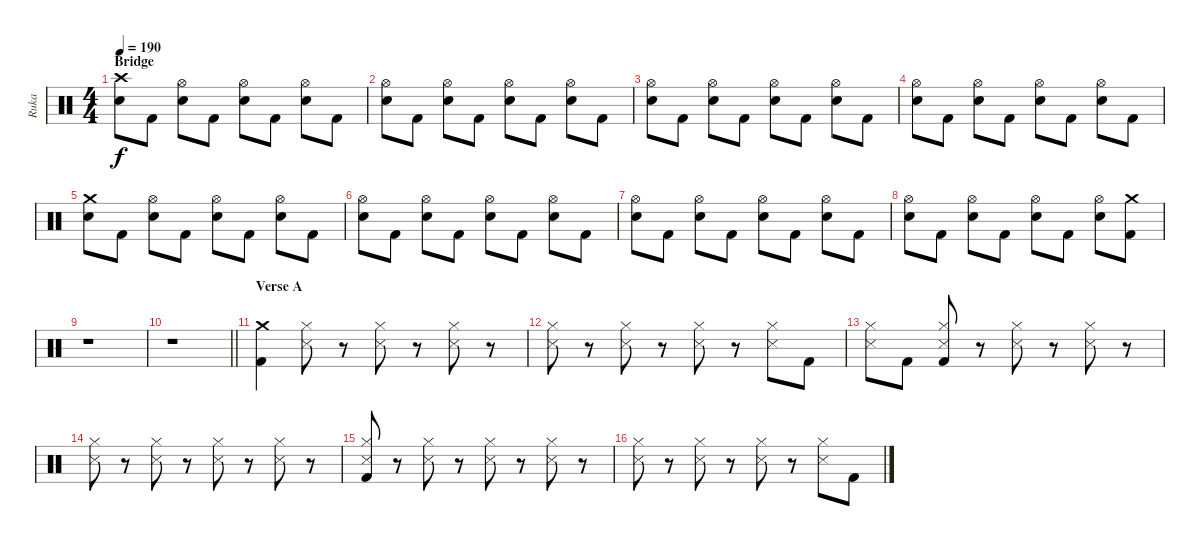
\track ("Ruka " "Ruka ") {instrument percussion}
\staff {score}
\articulation defaults
\ts (4 4)
\section ("" "Bridge")
\tempo 190
\clef neutral
\ks c
("Crash high (hit)" "Electric Snare (hit)").8{dy f} "Kick (hit) 2".8 ("Hi-Hat (open)" "Electric Snare (hit)").8 "Kick (hit) 2".8 ("Hi-Hat (open)" "Electric Snare (hit)").8 "Kick (hit) 2".8 ("Hi-Hat (open)" "Electric Snare (hit)").8 "Kick (hit) 2".8 |
("Hi-Hat (open)" "Electric Snare (hit)").8 "Kick (hit) 2".8 ("Hi-Hat (open)" "Electric Snare (hit)").8 "Kick (hit) 2".8 ("Hi-Hat (open)" "Electric Snare (hit)").8 "Kick (hit) 2".8 ("Hi-Hat (open)" "Electric Snare (hit)").8 "Kick (hit) 2".8 |
("Hi-Hat (open)" "Electric Snare (hit)").8 "Kick (hit) 2".8 ("Hi-Hat (open)" "Electric Snare (hit)").8 "Kick (hit) 2".8 ("Hi-Hat (open)" "Electric Snare (hit)").8 "Kick (hit) 2".8 ("Hi-Hat (open)" "Electric Snare (hit)").8 "Kick (hit) 2".8 |
("Hi-Hat (open)" "Electric Snare (hit)").8 "Kick (hit) 2".8 ("Hi-Hat (open)" "Electric Snare (hit)").8 "Kick (hit) 2".8 ("Hi-Hat (open)" "Electric Snare (hit)").8 "Kick (hit) 2".8 ("Hi-Hat (open)" "Electric Snare (hit)").8 "Kick (hit) 2".8 |
("Crash medium (hit)" "Electric Snare (hit)").8 "Kick (hit) 2".8 ("Hi-Hat (open)" "Electric Snare (hit)").8 "Kick (hit) 2".8 ("Hi-Hat (open)" "Electric Snare (hit)").8 "Kick (hit) 2".8 ("Hi-Hat (open)" "Electric Snare (hit)").8 "Kick (hit) 2".8 |
("Hi-Hat (open)" "Electric Snare (hit)").8 "Kick (hit) 2".8 ("Hi-Hat (open)" "Electric Snare (hit)").8 "Kick (hit) 2".8 ("Hi-Hat (open)" "Electric Snare (hit)").8 "Kick (hit) 2".8 ("Hi-Hat (open)" "Electric Snare (hit)").8 "Kick (hit) 2".8 |
("Hi-Hat (open)" "Electric Snare (hit)").8 "Kick (hit) 2".8 ("Hi-Hat (open)" "Electric Snare (hit)").8 "Kick (hit) 2".8 ("Hi-Hat (open)" "Electric Snare (hit)").8 "Kick (hit) 2".8 ("Hi-Hat (open)" "Electric Snare (hit)").8 "Kick (hit) 2".8 |
("Hi-Hat (open)" "Electric Snare (hit)").8 "Kick (hit) 2".8 ("Hi-Hat (open)" "Electric Snare (hit)").8 "Kick (hit) 2".8 ("Hi-Hat (open)" "Electric Snare (hit)").8 "Kick (hit) 2".8 ("Hi-Hat (open)" "Electric Snare (hit)").8 ("Crash medium (hit)" "Kick (hit) 2").8 |
r.1 |
\barLineRight lightlight
r.1 |
\section ("" "Verse A")
("Crash medium (hit)" "Kick (hit) 2").4 ("Hi-Hat (closed)" "Snare (side stick) 3").8 r.8 ("Hi-Hat (closed)" "Snare (side stick) 3").8 r.8 ("Hi-Hat (closed)" "Snare (side stick) 3").8 r.8 |
("Hi-Hat (closed)" "Snare (side stick) 3").8 r.8 ("Hi-Hat (closed)" "Snare (side stick) 3").8 r.8 ("Hi-Hat (closed)" "Snare (side stick) 3").8 r.8 ("Hi-Hat (closed)" "Snare (side stick) 3").8 "Kick (hit) 2".8 |
("Hi-Hat (closed)" "Snare (side stick) 3").8 "Kick (hit) 2".8 ("Hi-Hat (closed)" "Snare (side stick) 3" "Kick (hit) 2").8 r.8 ("Hi-Hat (closed)" "Snare (side stick) 3").8 r.8 ("Hi-Hat (closed)" "Snare (side stick) 3").8 r.8 |
("Hi-Hat (closed)" "Snare (side stick) 3").8 r.8 ("Hi-Hat (closed)" "Snare (side stick) 3").8 r.8 ("Hi-Hat (closed)" "Snare (side stick) 3").8 r.8 ("Hi-Hat (closed)" "Snare (side stick) 3").8 r.8 |
("Hi-Hat (closed)" "Snare (side stick) 3" "Kick (hit) 2").8 r.8 ("Hi-Hat (closed)" "Snare (side stick) 3").8 r.8 ("Hi-Hat (closed)" "Snare (side stick) 3").8 r.8 ("Hi-Hat (closed)" "Snare (side stick) 3").8 r.8 |
("Hi-Hat (closed)" "Snare (side stick) 3").8 r.8 ("Hi-Hat (closed)" "Snare (side stick) 3").8 r.8 ("Hi-Hat (closed)" "Snare (side stick) 3").8 r.8 ("Hi-Hat (closed)" "Snare (side stick) 3").8 "Kick (hit) 2".8
